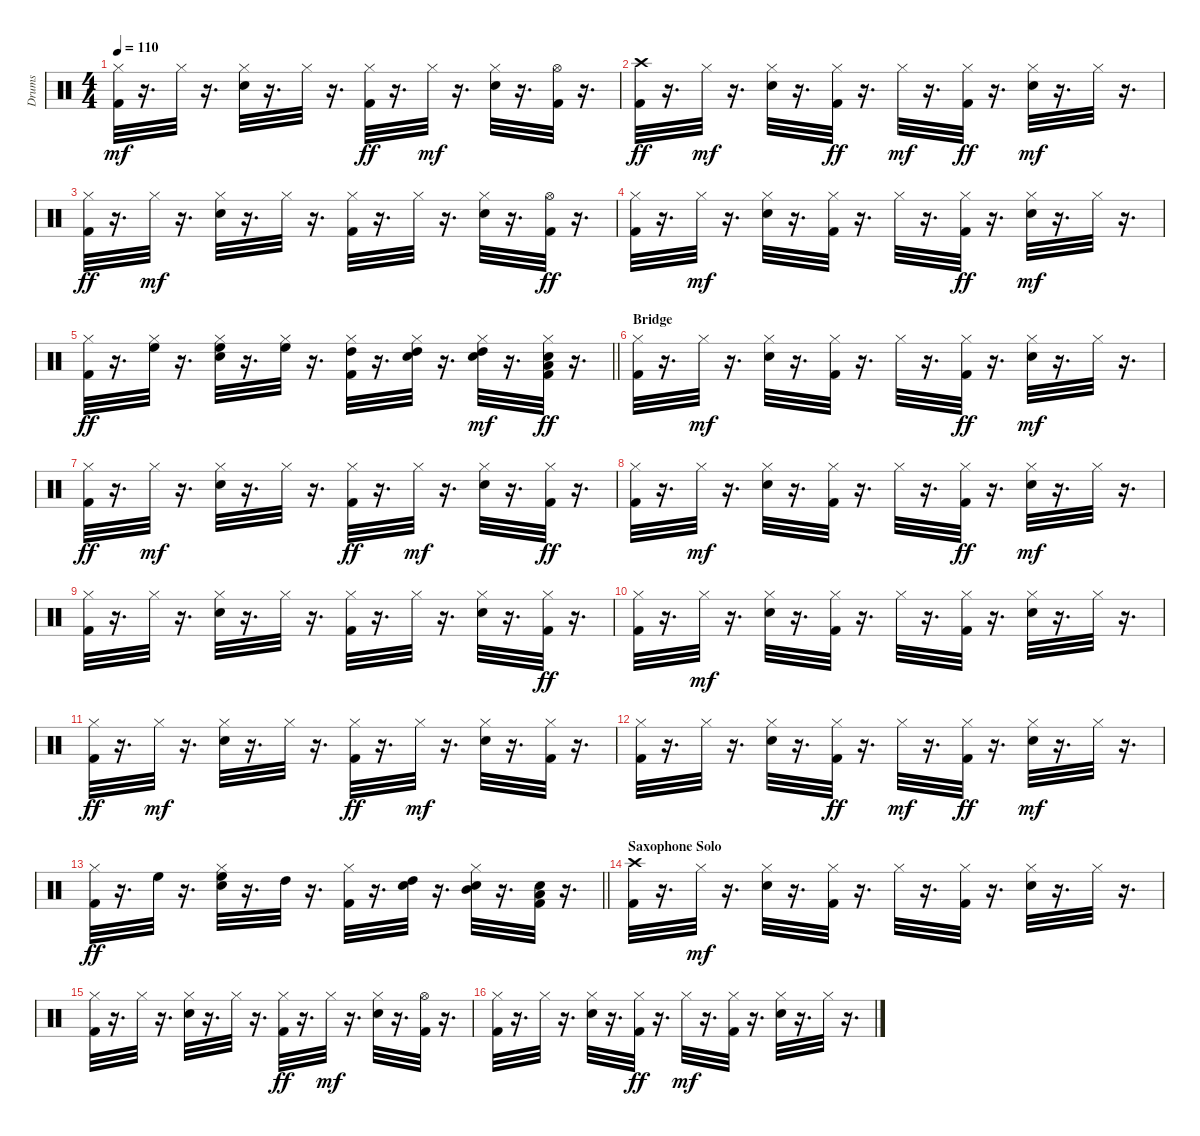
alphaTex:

\track ("Drums" "Drums") {instrument percussion}
\staff {score}
\articulation defaults
\ts (4 4)
\tempo 110
\clef neutral
\ks c
("Kick (hit) 2" "Hi-Hat (closed)").32{dy mf} r.16{d} "Hi-Hat (closed)".32 r.16{d} ("Snare (hit) 2" "Hi-Hat (closed)").32 r.16{d} "Hi-Hat (closed)".32 r.16{d} ("Hi-Hat (closed)" "Kick (hit) 2").32{dy ff} r.16{d} "Hi-Hat (closed)".32{dy mf} r.16{d} ("Snare (hit) 2" "Hi-Hat (closed)").32 r.16{d} ("Kick (hit) 2" "Hi-Hat (open)").32 r.16{d} |
("Kick (hit) 2" "Crash high (hit)").32{dy ff} r.16{d} "Hi-Hat (closed)".32{dy mf} r.16{d} ("Hi-Hat (closed)" "Snare (hit) 2").32 r.16{d} ("Hi-Hat (closed)" "Kick (hit) 2").32{dy ff} r.16{d} "Hi-Hat (closed)".32{dy mf} r.16{d} ("Hi-Hat (closed)" "Kick (hit) 2").32{dy ff} r.16{d} ("Snare (hit) 2" "Hi-Hat (closed)").32{dy mf} r.16{d} "Hi-Hat (closed)".32 r.16{d} |
("Hi-Hat (closed)" "Kick (hit) 2").32{dy ff} r.16{d} "Hi-Hat (closed)".32{dy mf} r.16{d} ("Snare (hit) 2" "Hi-Hat (closed)").32 r.16{d} "Hi-Hat (closed)".32 r.16{d} ("Kick (hit) 2" "Hi-Hat (closed)").32 r.16{d} "Hi-Hat (closed)".32 r.16{d} ("Snare (hit) 2" "Hi-Hat (closed)").32 r.16{d} ("Hi-Hat (open)" "Kick (hit) 2").32{dy ff} r.16{d} |
("Hi-Hat (closed)" "Kick (hit) 2").32 r.16{d} "Hi-Hat (closed)".32{dy mf} r.16{d} ("Snare (hit) 2" "Hi-Hat (closed)").32 r.16{d} ("Kick (hit) 2" "Hi-Hat (closed)").32 r.16{d} "Hi-Hat (closed)".32 r.16{d} ("Hi-Hat (closed)" "Kick (hit) 2").32{dy ff} r.16{d} ("Snare (hit) 2" "Hi-Hat (closed)").32{dy mf} r.16{d} "Hi-Hat (closed)".32 r.16{d} |
\barLineRight lightlight
("Hi-Hat (closed)" "Kick (hit) 2").32{dy ff} r.16{d} ("Hi-Hat (closed)" "High Floor Tom (hit)").32 r.16{d} ("Hi-Hat (closed)" "High Floor Tom (hit)" "Snare (hit) 2").32 r.16{d} ("Hi-Hat (closed)" "High Floor Tom (hit)").32 r.16{d} ("Hi-Hat (closed)" "High Tom (hit)" "Kick (hit) 2").32 r.16{d} ("Hi-Hat (closed)" "High Tom (hit)" "Snare (hit) 2").32 r.16{d} ("Snare (hit) 2" "High Tom (hit)" "Hi-Hat (closed)").32{dy mf} r.16{d} ("Low Tom (hit)" "Snare (hit) 2" "Hi-Hat (closed)" "Kick (hit) 2").32{dy ff} r.16{d} |
\section ("" "Bridge")
("Hi-Hat (closed)" "Kick (hit) 2").32 r.16{d} "Hi-Hat (closed)".32{dy mf} r.16{d} ("Snare (hit) 2" "Hi-Hat (closed)").32 r.16{d} ("Kick (hit) 2" "Hi-Hat (closed)").32 r.16{d} "Hi-Hat (closed)".32 r.16{d} ("Hi-Hat (closed)" "Kick (hit) 2").32{dy ff} r.16{d} ("Snare (hit) 2" "Hi-Hat (closed)").32{dy mf} r.16{d} "Hi-Hat (closed)".32 r.16{d} |
("Hi-Hat (closed)" "Kick (hit) 2").32{dy ff} r.16{d} "Hi-Hat (closed)".32{dy mf} r.16{d} ("Hi-Hat (closed)" "Snare (hit) 2").32 r.16{d} "Hi-Hat (closed)".32 r.16{d} ("Hi-Hat (closed)" "Kick (hit) 2").32{dy ff} r.16{d} "Hi-Hat (closed)".32{dy mf} r.16{d} ("Snare (hit) 2" "Hi-Hat (closed)").32 r.16{d} ("Hi-Hat (closed)" "Kick (hit) 2").32{dy ff} r.16{d} |
("Hi-Hat (closed)" "Kick (hit) 2").32 r.16{d} "Hi-Hat (closed)".32{dy mf} r.16{d} ("Snare (hit) 2" "Hi-Hat (closed)").32 r.16{d} ("Kick (hit) 2" "Hi-Hat (closed)").32 r.16{d} "Hi-Hat (closed)".32 r.16{d} ("Hi-Hat (closed)" "Kick (hit) 2").32{dy ff} r.16{d} ("Snare (hit) 2" "Hi-Hat (closed)").32{dy mf} r.16{d} "Hi-Hat (closed)".32 r.16{d} |
("Kick (hit) 2" "Hi-Hat (closed)").32 r.16{d} "Hi-Hat (closed)".32 r.16{d} ("Snare (hit) 2" "Hi-Hat (closed)").32 r.16{d} "Hi-Hat (closed)".32 r.16{d} ("Kick (hit) 2" "Hi-Hat (closed)").32 r.16{d} "Hi-Hat (closed)".32 r.16{d} ("Hi-Hat (closed)" "Snare (hit) 2").32 r.16{d} ("Hi-Hat (closed)" "Kick (hit) 2").32{dy ff} r.16{d} |
("Hi-Hat (closed)" "Kick (hit) 2").32 r.16{d} "Hi-Hat (closed)".32{dy mf} r.16{d} ("Hi-Hat (closed)" "Snare (hit) 2").32 r.16{d} ("Kick (hit) 2" "Hi-Hat (closed)").32 r.16{d} "Hi-Hat (closed)".32 r.16{d} ("Kick (hit) 2" "Hi-Hat (closed)").32 r.16{d} ("Snare (hit) 2" "Hi-Hat (closed)").32 r.16{d} "Hi-Hat (closed)".32 r.16{d} |
("Hi-Hat (closed)" "Kick (hit) 2").32{dy ff} r.16{d} "Hi-Hat (closed)".32{dy mf} r.16{d} ("Snare (hit) 2" "Hi-Hat (closed)").32 r.16{d} "Hi-Hat (closed)".32 r.16{d} ("Hi-Hat (closed)" "Kick (hit) 2").32{dy ff} r.16{d} "Hi-Hat (closed)".32{dy mf} r.16{d} ("Hi-Hat (closed)" "Snare (hit) 2").32 r.16{d} ("Kick (hit) 2" "Hi-Hat (closed)").32 r.16{d} |
("Kick (hit) 2" "Hi-Hat (closed)").32 r.16{d} "Hi-Hat (closed)".32 r.16{d} ("Snare (hit) 2" "Hi-Hat (closed)").32 r.16{d} ("Hi-Hat (closed)" "Kick (hit) 2").32{dy ff} r.16{d} "Hi-Hat (closed)".32{dy mf} r.16{d} ("Hi-Hat (closed)" "Kick (hit) 2").32{dy ff} r.16{d} ("Snare (hit) 2" "Hi-Hat (closed)").32{dy mf} r.16{d} "Hi-Hat (closed)".32 r.16{d} |
\barLineRight lightlight
("Hi-Hat (closed)" "Kick (hit) 2").32{dy ff} r.16{d} "High Floor Tom (hit)".32 r.16{d} ("Snare (hit) 2" "Hi-Hat (closed)" "High Floor Tom (hit)").32 r.16{d} "High Tom (hit)".32 r.16{d} ("Hi-Hat (closed)" "Kick (hit) 2").32 r.16{d} ("High Tom (hit)" "Snare (hit) 2").32 r.16{d} ("Hi-Hat (closed)" "Snare (hit) 2" "Mid Tom (hit)").32 r.16{d} ("Low Tom (hit)" "Snare (hit) 2" "Kick (hit) 2").32 r.16{d} |
\section ("" "Saxophone Solo")
("Crash high (hit)" "Kick (hit) 2").32 r.16{d} "Hi-Hat (closed)".32{dy mf} r.16{d} ("Snare (hit) 2" "Hi-Hat (closed)").32 r.16{d} ("Kick (hit) 2" "Hi-Hat (closed)").32 r.16{d} "Hi-Hat (closed)".32 r.16{d} ("Kick (hit) 2" "Hi-Hat (closed)").32 r.16{d} ("Hi-Hat (closed)" "Snare (hit) 2").32 r.16{d} "Hi-Hat (closed)".32 r.16{d} |
("Kick (hit) 2" "Hi-Hat (closed)").32 r.16{d} "Hi-Hat (closed)".32 r.16{d} ("Hi-Hat (closed)" "Snare (hit) 2").32 r.16{d} "Hi-Hat (closed)".32 r.16{d} ("Hi-Hat (closed)" "Kick (hit) 2").32{dy ff} r.16{d} "Hi-Hat (closed)".32{dy mf} r.16{d} ("Snare (hit) 2" "Hi-Hat (closed)").32 r.16{d} ("Kick (hit) 2" "Hi-Hat (open)").32 r.16{d} |
("Kick (hit) 2" "Hi-Hat (closed)").32 r.16{d} "Hi-Hat (closed)".32 r.16{d} ("Hi-Hat (closed)" "Snare (hit) 2").32 r.16{d} ("Hi-Hat (closed)" "Kick (hit) 2").32{dy ff} r.16{d} "Hi-Hat (closed)".32{dy mf} r.16{d} ("Kick (hit) 2" "Hi-Hat (closed)").32 r.16{d} ("Hi-Hat (closed)" "Snare (hit) 2").32 r.16{d} "Hi-Hat (closed)".32 r.16{d}
